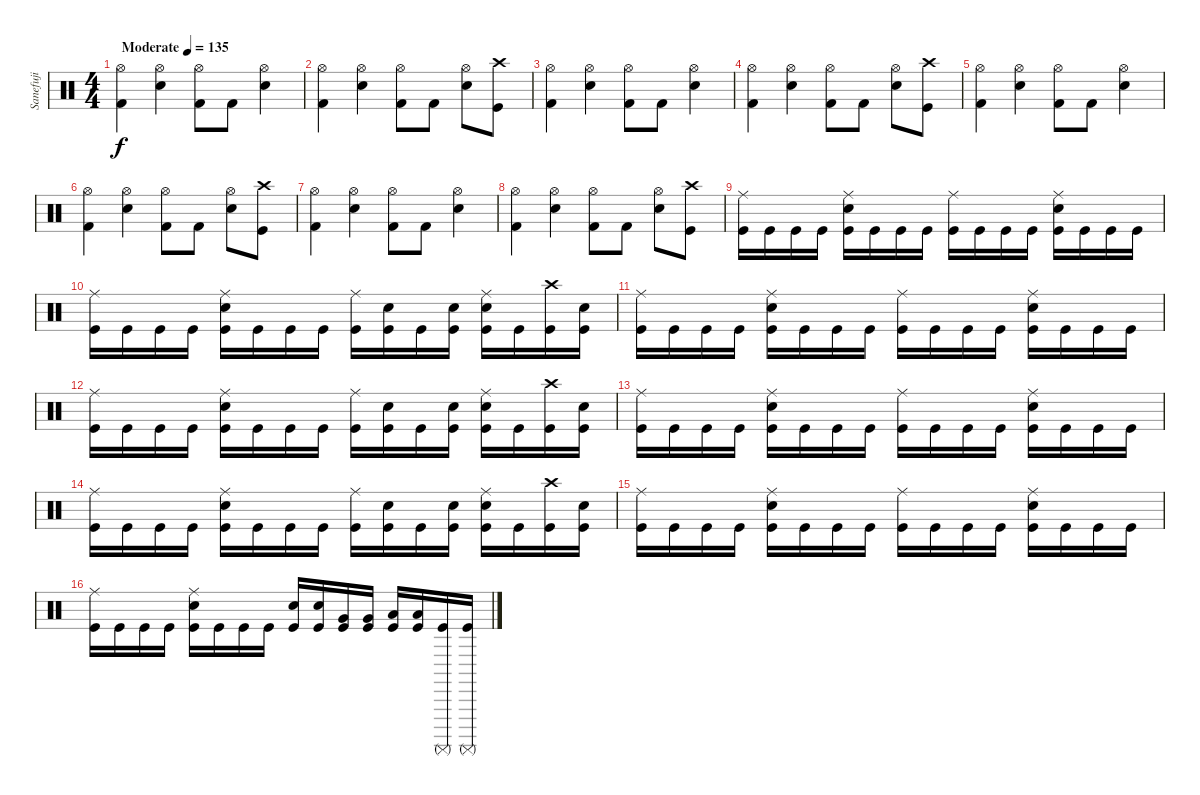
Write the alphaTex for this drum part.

\track ("Sanefuji" "Sanefuji") {instrument percussion}
\staff {score}
\articulation defaults
\ts (4 4)
\tempo (135 "Moderate")
\clef neutral
\ks c
("Hi-Hat (open)" "Kick (hit) 2").4{dy f} ("Hi-Hat (open)" "Electric Snare (hit)").4 ("Hi-Hat (open)" "Kick (hit) 2").8 "Kick (hit) 2".8 ("Hi-Hat (open)" "Electric Snare (hit)").4 |
("Hi-Hat (open)" "Kick (hit) 2").4 ("Hi-Hat (open)" "Electric Snare (hit)").4 ("Hi-Hat (open)" "Kick (hit) 2").8 "Kick (hit) 2".8 ("Hi-Hat (open)" "Electric Snare (hit)").8 ("Crash high (hit)" "Kick (hit)").8 |
("Hi-Hat (open)" "Kick (hit) 2").4 ("Hi-Hat (open)" "Electric Snare (hit)").4 ("Hi-Hat (open)" "Kick (hit) 2").8 "Kick (hit) 2".8 ("Hi-Hat (open)" "Electric Snare (hit)").4 |
("Hi-Hat (open)" "Kick (hit) 2").4 ("Hi-Hat (open)" "Electric Snare (hit)").4 ("Hi-Hat (open)" "Kick (hit) 2").8 "Kick (hit) 2".8 ("Hi-Hat (open)" "Electric Snare (hit)").8 ("Crash high (hit)" "Kick (hit)").8 |
("Hi-Hat (open)" "Kick (hit) 2").4 ("Hi-Hat (open)" "Electric Snare (hit)").4 ("Hi-Hat (open)" "Kick (hit) 2").8 "Kick (hit) 2".8 ("Hi-Hat (open)" "Electric Snare (hit)").4 |
("Hi-Hat (open)" "Kick (hit) 2").4 ("Hi-Hat (open)" "Electric Snare (hit)").4 ("Hi-Hat (open)" "Kick (hit) 2").8 "Kick (hit) 2".8 ("Hi-Hat (open)" "Electric Snare (hit)").8 ("Crash high (hit)" "Kick (hit)").8 |
("Hi-Hat (open)" "Kick (hit) 2").4 ("Hi-Hat (open)" "Electric Snare (hit)").4 ("Hi-Hat (open)" "Kick (hit) 2").8 "Kick (hit) 2".8 ("Hi-Hat (open)" "Electric Snare (hit)").4 |
("Hi-Hat (open)" "Kick (hit) 2").4 ("Hi-Hat (open)" "Electric Snare (hit)").4 ("Hi-Hat (open)" "Kick (hit) 2").8 "Kick (hit) 2".8 ("Hi-Hat (open)" "Electric Snare (hit)").8 ("Crash high (hit)" "Kick (hit)").8 |
("Ride (middle)" "Kick (hit)").16 "Kick (hit)".16 "Kick (hit)".16 "Kick (hit)".16 ("Ride (middle)" "Electric Snare (hit)" "Kick (hit)").16 "Kick (hit)".16 "Kick (hit)".16 "Kick (hit)".16 ("Ride (middle)" "Kick (hit)").16 "Kick (hit)".16 "Kick (hit)".16 "Kick (hit)".16 ("Ride (middle)" "Electric Snare (hit)" "Kick (hit)").16 "Kick (hit)".16 "Kick (hit)".16 "Kick (hit)".16 |
("Ride (middle)" "Kick (hit)").16 "Kick (hit)".16 "Kick (hit)".16 "Kick (hit)".16 ("Ride (middle)" "Electric Snare (hit)" "Kick (hit)").16 "Kick (hit)".16 "Kick (hit)".16 "Kick (hit)".16 ("Ride (middle)" "Kick (hit)").16 ("Electric Snare (hit)" "Kick (hit)").16 "Kick (hit)".16 ("Electric Snare (hit)" "Kick (hit)").16 ("Ride (middle)" "Electric Snare (hit)" "Kick (hit)").16 "Kick (hit)".16 ("Crash high (hit)" "Kick (hit)").16 ("Electric Snare (hit)" "Kick (hit)").16 |
("Ride (middle)" "Kick (hit)").16 "Kick (hit)".16 "Kick (hit)".16 "Kick (hit)".16 ("Ride (middle)" "Electric Snare (hit)" "Kick (hit)").16 "Kick (hit)".16 "Kick (hit)".16 "Kick (hit)".16 ("Ride (middle)" "Kick (hit)").16 "Kick (hit)".16 "Kick (hit)".16 "Kick (hit)".16 ("Ride (middle)" "Electric Snare (hit)" "Kick (hit)").16 "Kick (hit)".16 "Kick (hit)".16 "Kick (hit)".16 |
("Ride (middle)" "Kick (hit)").16 "Kick (hit)".16 "Kick (hit)".16 "Kick (hit)".16 ("Ride (middle)" "Electric Snare (hit)" "Kick (hit)").16 "Kick (hit)".16 "Kick (hit)".16 "Kick (hit)".16 ("Ride (middle)" "Kick (hit)").16 ("Electric Snare (hit)" "Kick (hit)").16 "Kick (hit)".16 ("Electric Snare (hit)" "Kick (hit)").16 ("Ride (middle)" "Electric Snare (hit)" "Kick (hit)").16 "Kick (hit)".16 ("Crash high (hit)" "Kick (hit)").16 ("Electric Snare (hit)" "Kick (hit)").16 |
("Ride (middle)" "Kick (hit)").16 "Kick (hit)".16 "Kick (hit)".16 "Kick (hit)".16 ("Ride (middle)" "Electric Snare (hit)" "Kick (hit)").16 "Kick (hit)".16 "Kick (hit)".16 "Kick (hit)".16 ("Ride (middle)" "Kick (hit)").16 "Kick (hit)".16 "Kick (hit)".16 "Kick (hit)".16 ("Ride (middle)" "Electric Snare (hit)" "Kick (hit)").16 "Kick (hit)".16 "Kick (hit)".16 "Kick (hit)".16 |
("Ride (middle)" "Kick (hit)").16 "Kick (hit)".16 "Kick (hit)".16 "Kick (hit)".16 ("Ride (middle)" "Electric Snare (hit)" "Kick (hit)").16 "Kick (hit)".16 "Kick (hit)".16 "Kick (hit)".16 ("Ride (middle)" "Kick (hit)").16 ("Electric Snare (hit)" "Kick (hit)").16 "Kick (hit)".16 ("Electric Snare (hit)" "Kick (hit)").16 ("Ride (middle)" "Electric Snare (hit)" "Kick (hit)").16 "Kick (hit)".16 ("Crash high (hit)" "Kick (hit)").16 ("Electric Snare (hit)" "Kick (hit)").16 |
("Ride (middle)" "Kick (hit)").16 "Kick (hit)".16 "Kick (hit)".16 "Kick (hit)".16 ("Ride (middle)" "Electric Snare (hit)" "Kick (hit)").16 "Kick (hit)".16 "Kick (hit)".16 "Kick (hit)".16 ("Ride (middle)" "Kick (hit)").16 "Kick (hit)".16 "Kick (hit)".16 "Kick (hit)".16 ("Ride (middle)" "Electric Snare (hit)" "Kick (hit)").16 "Kick (hit)".16 "Kick (hit)".16 "Kick (hit)".16 |
("Ride (middle)" "Kick (hit)").16 "Kick (hit)".16 "Kick (hit)".16 "Kick (hit)".16 ("Ride (middle)" "Electric Snare (hit)" "Kick (hit)").16 "Kick (hit)".16 "Kick (hit)".16 "Kick (hit)".16 ("Electric Snare (hit)" "Kick (hit)").16 ("Electric Snare (hit)" "Kick (hit)").16 ("Very Low Tom (hit)" "Kick (hit)").16 ("Very Low Tom (hit)" "Kick (hit)").16 ("Low Tom (hit)" "Kick (hit)").16 ("Low Tom (hit)" "Kick (hit)").16 ("Surdo (mute)" "Kick (hit)").16 ("Surdo (mute)" "Kick (hit)").16
